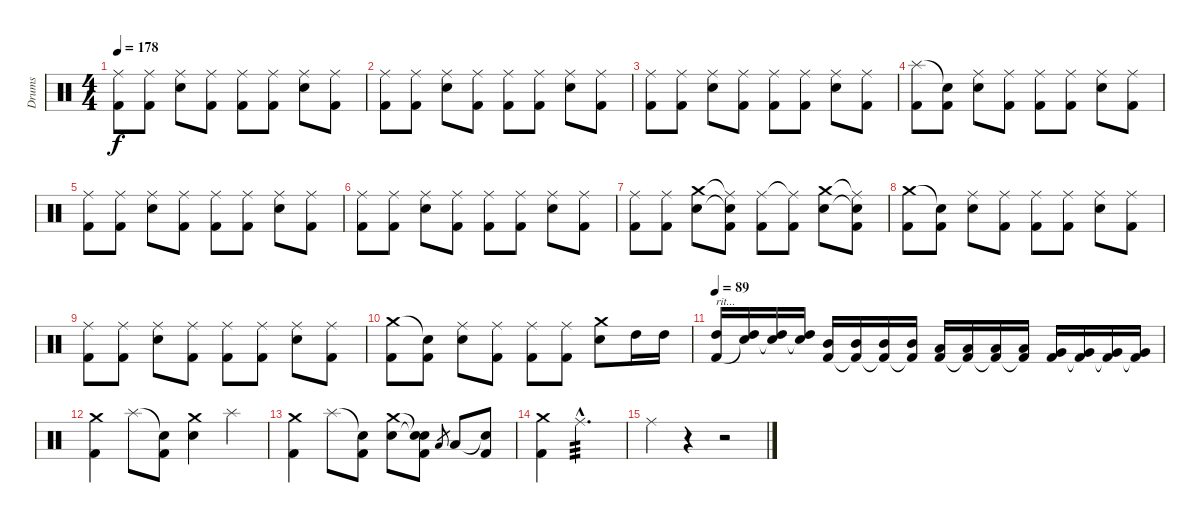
\track ("Drums" "Drums") {instrument percussion}
\staff {score}
\articulation defaults
\ts (4 4)
\tempo 178
\clef neutral
\ks c
("Ride (middle)" "Kick (hit) 2").8{dy f} ("Ride (middle)" "Kick (hit) 2").8 ("Ride (middle)" "Electric Snare (hit)").8 ("Ride (middle)" "Kick (hit) 2").8 ("Ride (middle)" "Kick (hit) 2").8 ("Ride (middle)" "Kick (hit) 2").8 ("Ride (middle)" "Electric Snare (hit)").8 ("Ride (middle)" "Kick (hit) 2").8 |
("Ride (middle)" "Kick (hit) 2").8 ("Ride (middle)" "Kick (hit) 2").8 ("Ride (middle)" "Electric Snare (hit)").8 ("Ride (middle)" "Kick (hit) 2").8 ("Ride (middle)" "Kick (hit) 2").8 ("Ride (middle)" "Kick (hit) 2").8 ("Ride (middle)" "Electric Snare (hit)").8 ("Ride (middle)" "Kick (hit) 2").8 |
("Ride (middle)" "Kick (hit) 2").8 ("Ride (middle)" "Kick (hit) 2").8 ("Ride (middle)" "Electric Snare (hit)").8 ("Ride (middle)" "Kick (hit) 2").8 ("Ride (middle)" "Kick (hit) 2").8 ("Ride (middle)" "Kick (hit) 2").8 ("Ride (middle)" "Electric Snare (hit)").8 ("Ride (middle)" "Kick (hit) 2").8 |
("Splash (hit)" "Kick (hit) 2").8 ("Snare (hit)"{t} "Kick (hit) 2").8 ("Ride (middle)" "Electric Snare (hit)").8 ("Ride (middle)" "Kick (hit) 2").8 ("Ride (middle)" "Kick (hit) 2").8 ("Ride (middle)" "Kick (hit) 2").8 ("Ride (middle)" "Electric Snare (hit)").8 ("Ride (middle)" "Kick (hit) 2").8 |
("Ride (middle)" "Kick (hit) 2").8 ("Ride (middle)" "Kick (hit) 2").8 ("Ride (middle)" "Electric Snare (hit)").8 ("Ride (middle)" "Kick (hit) 2").8 ("Ride (middle)" "Kick (hit) 2").8 ("Ride (middle)" "Kick (hit) 2").8 ("Ride (middle)" "Electric Snare (hit)").8 ("Ride (middle)" "Kick (hit) 2").8 |
("Ride (middle)" "Kick (hit) 2").8 ("Ride (middle)" "Kick (hit) 2").8 ("Ride (middle)" "Electric Snare (hit)").8 ("Ride (middle)" "Kick (hit) 2").8 ("Ride (middle)" "Kick (hit) 2").8 ("Ride (middle)" "Kick (hit) 2").8 ("Ride (middle)" "Electric Snare (hit)").8 ("Ride (middle)" "Kick (hit) 2").8 |
("Ride (middle)" "Kick (hit) 2").8 ("Ride (middle)" "Kick (hit) 2").8 ("Crash medium (hit)" "Electric Snare (hit)").8 ("Ride (middle)"{t} "Snare (hit)"{t} "Kick (hit) 2").8 ("Ride (middle)" "Kick (hit) 2").8 ("Ride (middle)"{t} "Kick (hit) 2").8 ("Crash medium (hit)" "Electric Snare (hit)").8 ("Ride (middle)"{t} "Snare (hit)"{t} "Kick (hit) 2").8 |
("Crash medium (hit)" "Kick (hit) 2").8 ("Snare (hit)"{t} "Kick (hit) 2").8 ("Ride (middle)" "Electric Snare (hit)").8 ("Ride (middle)" "Kick (hit) 2").8 ("Ride (middle)" "Kick (hit) 2").8 ("Ride (middle)" "Kick (hit) 2").8 ("Ride (middle)" "Electric Snare (hit)").8 ("Ride (middle)" "Kick (hit) 2").8 |
("Ride (middle)" "Kick (hit) 2").8 ("Ride (middle)" "Kick (hit) 2").8 ("Ride (middle)" "Electric Snare (hit)").8 ("Ride (middle)" "Kick (hit) 2").8 ("Ride (middle)" "Kick (hit) 2").8 ("Ride (middle)" "Kick (hit) 2").8 ("Ride (middle)" "Electric Snare (hit)").8 ("Ride (middle)" "Kick (hit) 2").8 |
("Crash medium (hit)" "Kick (hit) 2").8 ("Snare (hit)"{t} "Kick (hit) 2").8 ("Ride (middle)" "Electric Snare (hit)").8 ("Ride (middle)" "Kick (hit) 2").8 ("Ride (middle)" "Kick (hit) 2").8 ("Ride (middle)" "Kick (hit) 2").8 ("Crash medium (hit)" "Electric Snare (hit)").8 "High Tom (hit)".16 "High Tom (hit)".16 |
\tempo 89
("High Tom (hit)" "Kick (hit) 2").16{txt "rit..."} ("High Tom (hit)" "Snare (hit)"{t}).16 ("High Tom (hit)" "Snare (hit)"{t}).16 ("High Tom (hit)" "Snare (hit)"{t}).16 ("Mid Tom (hit)" "Kick (hit) 2").16 ("Mid Tom (hit)" "Kick (hit) 2"{t}).16 ("Mid Tom (hit)" "Kick (hit) 2"{t}).16 ("Mid Tom (hit)" "Kick (hit) 2"{t}).16 ("Low Tom (hit)" "Kick (hit) 2").16 ("Low Tom (hit)" "Kick (hit) 2"{t}).16 ("Low Tom (hit)" "Kick (hit) 2"{t}).16 ("Low Tom (hit)" "Kick (hit) 2"{t}).16 ("Very Low Tom (hit)" "Kick (hit) 2").16 ("Very Low Tom (hit)" "Kick (hit) 2"{t}).16 ("Very Low Tom (hit)" "Kick (hit) 2"{t}).16 ("Very Low Tom (hit)" "Kick (hit) 2"{t}).16 |
("Crash medium (hit)" "Kick (hit) 2").4 "Splash (hit)".8 ("Snare (hit)"{t} "Kick (hit) 2").8 ("Crash medium (hit)" "Electric Snare (hit)").4 "Splash (hit)".4 |
("Crash medium (hit)" "Kick (hit) 2").4 "Splash (hit)".8 ("Snare (hit)"{t} "Kick (hit) 2").8 ("Crash medium (hit)" "Electric Snare (hit)").8 ("Snare (hit)"{t} "Snare (hit)"{t} "Kick (hit) 2").8 "Low Floor Tom (hit)".8{gr} "Low Floor Tom (hit)".8 ("Snare (hit)"{t} "Kick (hit) 2").8 |
("Crash medium (hit)" "Kick (hit) 2").4 "Ride (middle)"{hac}.2{d tp 3} |
"Ride (middle)".4 r.4 r.2
